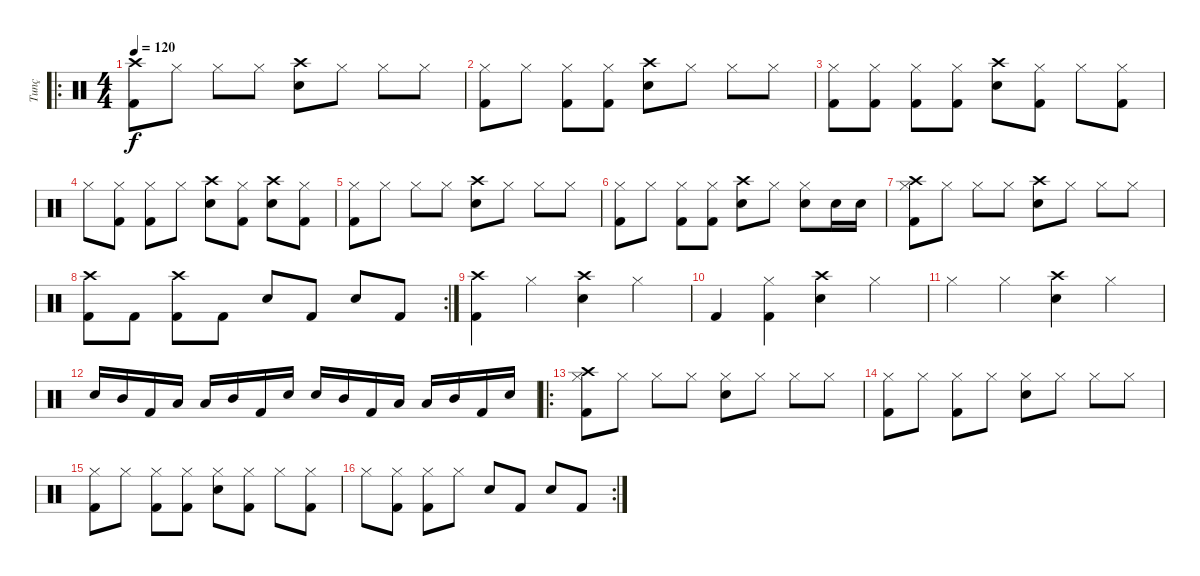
\track ("Tunç" "Tunç") {instrument percussion}
\staff {score}
\articulation defaults
\ro
\ts (4 4)
\tempo 120
\clef neutral
\ks c
("Crash high (hit)" "Kick (hit) 2").8{dy f} "Hi-Hat (closed)".8 "Hi-Hat (closed)".8 "Hi-Hat (closed)".8 ("Snare (hit) 2" "Crash high (hit)").8 "Hi-Hat (closed)".8 "Hi-Hat (closed)".8 "Hi-Hat (closed)".8 |
("Hi-Hat (closed)" "Kick (hit) 2").8 "Hi-Hat (closed)".8 ("Hi-Hat (closed)" "Kick (hit) 2").8 ("Hi-Hat (closed)" "Kick (hit) 2").8 ("Crash high (hit)" "Snare (hit) 2").8 "Hi-Hat (closed)".8 "Hi-Hat (closed)".8 "Hi-Hat (closed)".8 |
("Hi-Hat (closed)" "Kick (hit) 2").8 ("Hi-Hat (closed)" "Kick (hit) 2").8 ("Hi-Hat (closed)" "Kick (hit) 2").8 ("Hi-Hat (closed)" "Kick (hit) 2").8 ("Crash high (hit)" "Snare (hit) 2").8 ("Hi-Hat (closed)" "Kick (hit) 2").8 "Hi-Hat (closed)".8 ("Hi-Hat (closed)" "Kick (hit) 2").8 |
"Hi-Hat (closed)".8 ("Hi-Hat (closed)" "Kick (hit) 2").8 ("Hi-Hat (closed)" "Kick (hit) 2").8 "Hi-Hat (closed)".8 ("Crash high (hit)" "Snare (hit) 2").8 ("Hi-Hat (closed)" "Kick (hit) 2").8 ("Crash high (hit)" "Snare (hit) 2").8 ("Hi-Hat (closed)" "Kick (hit) 2").8 |
("Hi-Hat (closed)" "Kick (hit) 2").8 "Hi-Hat (closed)".8 "Hi-Hat (closed)".8 "Hi-Hat (closed)".8 ("Crash high (hit)" "Snare (hit) 2").8 "Hi-Hat (closed)".8 "Hi-Hat (closed)".8 "Hi-Hat (closed)".8 |
("Hi-Hat (closed)" "Kick (hit) 2").8 "Hi-Hat (closed)".8 ("Hi-Hat (closed)" "Kick (hit) 2").8 ("Hi-Hat (closed)" "Kick (hit) 2").8 ("Crash high (hit)" "Snare (hit) 2").8 "Hi-Hat (closed)".8 ("Hi-Hat (closed)" "Snare (hit) 2").8 "Snare (hit) 2".16 "Snare (hit) 2".16 |
("Crash high (hit)" "Hi-Hat (closed)" "Kick (hit) 2").8 "Hi-Hat (closed)".8 "Hi-Hat (closed)".8 "Hi-Hat (closed)".8 ("Crash high (hit)" "Snare (hit) 2").8 "Hi-Hat (closed)".8 "Hi-Hat (closed)".8 "Hi-Hat (closed)".8 |
\rc 2
("Crash high (hit)" "Kick (hit) 2").8 "Kick (hit) 2".8 ("Crash high (hit)" "Kick (hit) 2").8 "Kick (hit) 2".8 "Snare (hit) 2".8 "Kick (hit) 2".8 "Snare (hit) 2".8 "Kick (hit) 2".8 |
("Crash high (hit)" "Kick (hit) 2").4 "Hi-Hat (closed)".4 ("Snare (hit) 2" "Crash high (hit)").4 "Hi-Hat (closed)".4 |
"Kick (hit) 2".4 ("Hi-Hat (closed)" "Kick (hit) 2").4 ("Snare (hit) 2" "Crash high (hit)").4 "Hi-Hat (closed)".4 |
"Hi-Hat (closed)".4 "Hi-Hat (closed)".4 ("Crash high (hit)" "Snare (hit) 2").4 "Hi-Hat (closed)".4 |
"Snare (hit) 2".16 "Mid Tom (hit)".16 "Kick (hit) 2".16 "Low Tom (hit)".16 "Low Tom (hit)".16 "Mid Tom (hit)".16 "Kick (hit) 2".16 "Snare (hit) 2".16 "Snare (hit) 2".16 "Mid Tom (hit)".16 "Kick (hit) 2".16 "Low Tom (hit)".16 "Low Tom (hit)".16 "Mid Tom (hit)".16 "Kick (hit) 2".16 "Snare (hit) 2".16 |
\ro
("Crash high (hit)" "Kick (hit) 2" "Hi-Hat (closed)").8 "Hi-Hat (closed)".8 "Hi-Hat (closed)".8 "Hi-Hat (closed)".8 ("Snare (hit) 2" "Hi-Hat (closed)").8 "Hi-Hat (closed)".8 "Hi-Hat (closed)".8 "Hi-Hat (closed)".8 |
("Kick (hit) 2" "Hi-Hat (closed)").8 "Hi-Hat (closed)".8 ("Kick (hit) 2" "Hi-Hat (closed)").8 "Hi-Hat (closed)".8 ("Snare (hit) 2" "Hi-Hat (closed)").8 "Hi-Hat (closed)".8 "Hi-Hat (closed)".8 "Hi-Hat (closed)".8 |
("Kick (hit) 2" "Hi-Hat (closed)").8 "Hi-Hat (closed)".8 ("Kick (hit) 2" "Hi-Hat (closed)").8 ("Kick (hit) 2" "Hi-Hat (closed)").8 ("Snare (hit) 2" "Hi-Hat (closed)").8 ("Kick (hit) 2" "Hi-Hat (closed)").8 "Hi-Hat (closed)".8 ("Kick (hit) 2" "Hi-Hat (closed)").8 |
\rc 2 "Hi-Hat (closed)".8
("Kick (hit) 2" "Hi-Hat (closed)").8 ("Kick (hit) 2" "Hi-Hat (closed)").8 "Hi-Hat (closed)".8 "Snare (hit) 2".8 "Kick (hit) 2".8 "Snare (hit) 2".8 "Kick (hit) 2".8
